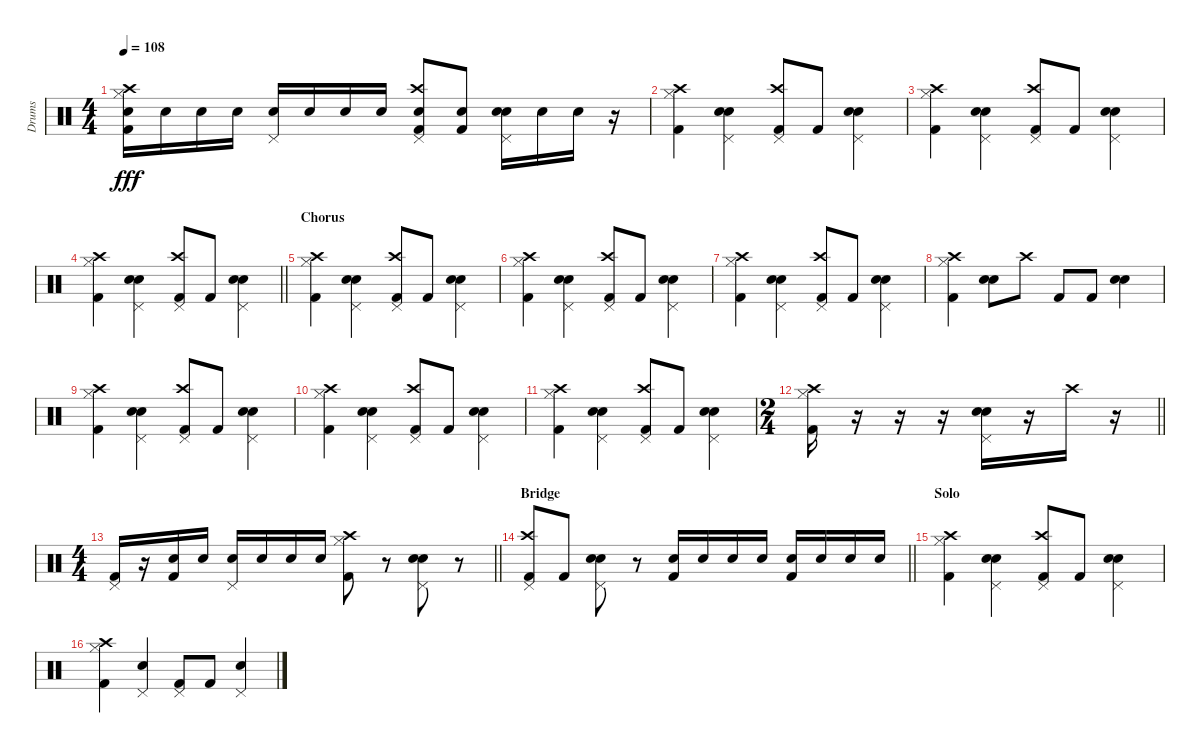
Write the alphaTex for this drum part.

\track ("Drums" "Drums") {instrument percussion}
\staff {score}
\articulation defaults
\ts (4 4)
\tempo 108
\clef neutral
\ks c
("Hi-Hat (closed)" "Kick (hit) 2" "Crash high (hit)" "Electric Snare (hit)").16{dy fff} "Electric Snare (hit)".16 "Electric Snare (hit)".16 "Electric Snare (hit)".16 ("Pedal Hi-Hat (hit)" "Snare (hit) 2").16 "Snare (hit) 2".16 "Snare (hit) 2".16 "Snare (hit) 2".16 ("Pedal Hi-Hat (hit)" "Kick (hit) 2" "Crash high (hit)" "Snare (hit) 2").8 ("Kick (hit) 2" "Snare (hit) 2").8 ("Electric Snare (hit)" "Pedal Hi-Hat (hit)" "Snare (hit) 2").16 "Snare (hit) 2".16 "Snare (hit) 2".16 r.16 |
("Hi-Hat (closed)" "Kick (hit) 2" "Crash high (hit)").4 ("Electric Snare (hit)" "Pedal Hi-Hat (hit)" "Snare (hit) 2").4 ("Pedal Hi-Hat (hit)" "Kick (hit) 2" "Crash high (hit)").8 "Kick (hit) 2".8 ("Electric Snare (hit)" "Pedal Hi-Hat (hit)" "Snare (hit) 2").4 |
("Hi-Hat (closed)" "Kick (hit) 2" "Crash high (hit)").4 ("Electric Snare (hit)" "Pedal Hi-Hat (hit)" "Snare (hit) 2").4 ("Pedal Hi-Hat (hit)" "Kick (hit) 2" "Crash high (hit)").8 "Kick (hit) 2".8 ("Electric Snare (hit)" "Pedal Hi-Hat (hit)" "Snare (hit) 2").4 |
\barLineRight lightlight
("Hi-Hat (closed)" "Kick (hit) 2" "Crash high (hit)").4 ("Electric Snare (hit)" "Pedal Hi-Hat (hit)" "Snare (hit) 2").4 ("Pedal Hi-Hat (hit)" "Kick (hit) 2" "Crash high (hit)").8 "Kick (hit) 2".8 ("Electric Snare (hit)" "Pedal Hi-Hat (hit)" "Snare (hit) 2").4 |
\section ("" "Chorus")
("Hi-Hat (closed)" "Kick (hit) 2" "Crash high (hit)").4 ("Electric Snare (hit)" "Pedal Hi-Hat (hit)" "Snare (hit) 2").4 ("Pedal Hi-Hat (hit)" "Kick (hit) 2" "Crash high (hit)").8 "Kick (hit) 2".8 ("Electric Snare (hit)" "Pedal Hi-Hat (hit)" "Snare (hit) 2").4 |
("Hi-Hat (closed)" "Kick (hit) 2" "Crash high (hit)").4 ("Electric Snare (hit)" "Pedal Hi-Hat (hit)" "Snare (hit) 2").4 ("Pedal Hi-Hat (hit)" "Kick (hit) 2" "Crash high (hit)").8 "Kick (hit) 2".8 ("Electric Snare (hit)" "Pedal Hi-Hat (hit)" "Snare (hit) 2").4 |
("Hi-Hat (closed)" "Kick (hit) 2" "Crash high (hit)").4 ("Electric Snare (hit)" "Pedal Hi-Hat (hit)" "Snare (hit) 2").4 ("Pedal Hi-Hat (hit)" "Kick (hit) 2" "Crash high (hit)").8 "Kick (hit) 2".8 ("Electric Snare (hit)" "Pedal Hi-Hat (hit)" "Snare (hit) 2").4 |
("Hi-Hat (closed)" "Kick (hit) 2" "Crash high (hit)").4 ("Electric Snare (hit)" "Snare (hit) 2").8 "Crash high (hit)".8 "Kick (hit) 2".8 "Kick (hit) 2".8 ("Electric Snare (hit)" "Snare (hit) 2").4 |
("Hi-Hat (closed)" "Kick (hit) 2" "Crash high (hit)").4 ("Electric Snare (hit)" "Pedal Hi-Hat (hit)" "Snare (hit) 2").4 ("Pedal Hi-Hat (hit)" "Kick (hit) 2" "Crash high (hit)").8 "Kick (hit) 2".8 ("Electric Snare (hit)" "Pedal Hi-Hat (hit)" "Snare (hit) 2").4 |
("Hi-Hat (closed)" "Kick (hit) 2" "Crash high (hit)").4 ("Electric Snare (hit)" "Pedal Hi-Hat (hit)" "Snare (hit) 2").4 ("Pedal Hi-Hat (hit)" "Kick (hit) 2" "Crash high (hit)").8 "Kick (hit) 2".8 ("Electric Snare (hit)" "Pedal Hi-Hat (hit)" "Snare (hit) 2").4 |
("Hi-Hat (closed)" "Kick (hit) 2" "Crash high (hit)").4 ("Electric Snare (hit)" "Pedal Hi-Hat (hit)" "Snare (hit) 2").4 ("Pedal Hi-Hat (hit)" "Kick (hit) 2" "Crash high (hit)").8 "Kick (hit) 2".8 ("Electric Snare (hit)" "Pedal Hi-Hat (hit)" "Snare (hit) 2").4 |
\ts (2 4)
\barLineRight lightlight
("Hi-Hat (closed)" "Kick (hit) 2" "Crash high (hit)").16 r.16 r.16 r.16 ("Electric Snare (hit)" "Pedal Hi-Hat (hit)" "Snare (hit) 2").16 r.16 "Crash high (hit)".16 r.16 |
\ts (4 4)
\barLineRight lightlight
("Pedal Hi-Hat (hit)" "Kick (hit) 2").16 r.16 ("Kick (hit) 2" "Snare (hit) 2").16 "Snare (hit) 2".16 ("Pedal Hi-Hat (hit)" "Electric Snare (hit)").16 "Electric Snare (hit)".16 "Electric Snare (hit)".16 "Electric Snare (hit)".16 ("Hi-Hat (closed)" "Kick (hit) 2" "Crash high (hit)").8 r.8 ("Electric Snare (hit)" "Pedal Hi-Hat (hit)" "Snare (hit) 2").8 r.8 |
\section ("" "Bridge")
\barLineRight lightlight
("Pedal Hi-Hat (hit)" "Kick (hit) 2" "Crash high (hit)").8 "Kick (hit) 2".8 ("Electric Snare (hit)" "Pedal Hi-Hat (hit)" "Snare (hit) 2").8 r.8 ("Electric Snare (hit)" "Kick (hit) 2").16 "Electric Snare (hit)".16 "Electric Snare (hit)".16 "Electric Snare (hit)".16 ("Snare (hit) 2" "Kick (hit) 2").16 "Snare (hit) 2".16 "Snare (hit) 2".16 "Snare (hit) 2".16 |
\section ("" "Solo")
("Hi-Hat (closed)" "Kick (hit) 2" "Crash high (hit)").4 ("Electric Snare (hit)" "Pedal Hi-Hat (hit)" "Snare (hit) 2").4 ("Pedal Hi-Hat (hit)" "Kick (hit) 2" "Crash high (hit)").8 "Kick (hit) 2".8 ("Electric Snare (hit)" "Pedal Hi-Hat (hit)" "Snare (hit) 2").4 |
("Hi-Hat (closed)" "Kick (hit) 2" "Crash high (hit)").4 ("Electric Snare (hit)" "Pedal Hi-Hat (hit)").4 ("Pedal Hi-Hat (hit)" "Kick (hit) 2").8 "Kick (hit) 2".8 ("Electric Snare (hit)" "Pedal Hi-Hat (hit)").4
